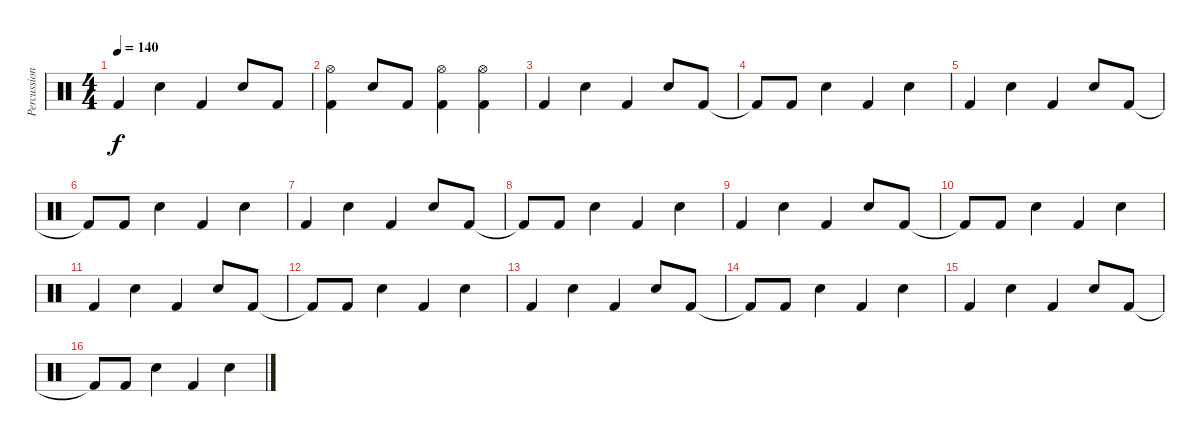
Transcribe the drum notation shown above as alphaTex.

\track ("Percussion" "Percussion") {instrument percussion}
\staff {score}
\articulation defaults
\ts (4 4)
\tempo 140
\clef neutral
\ks c "Kick (hit) 2".4{dy f} "Electric Snare (hit)".4 "Kick (hit) 2".4 "Electric Snare (hit)".8 "Kick (hit) 2".8
|
("Hi-Hat (open)" "Kick (hit) 2").4 "Electric Snare (hit)".8 "Kick (hit) 2".8 ("Hi-Hat (open)" "Kick (hit) 2").4 ("Hi-Hat (open)" "Kick (hit) 2").4 |
"Kick (hit) 2".4 "Electric Snare (hit)".4 "Kick (hit) 2".4 "Electric Snare (hit)".8 "Kick (hit) 2".8 |
"Kick (hit) 2"{t}.8 "Kick (hit) 2".8 "Electric Snare (hit)".4 "Kick (hit) 2".4 "Electric Snare (hit)".4 |
"Kick (hit) 2".4 "Electric Snare (hit)".4 "Kick (hit) 2".4 "Electric Snare (hit)".8 "Kick (hit) 2".8 |
"Kick (hit) 2"{t}.8 "Kick (hit) 2".8 "Electric Snare (hit)".4 "Kick (hit) 2".4 "Electric Snare (hit)".4 |
"Kick (hit) 2".4 "Electric Snare (hit)".4 "Kick (hit) 2".4 "Electric Snare (hit)".8 "Kick (hit) 2".8 |
"Kick (hit) 2"{t}.8 "Kick (hit) 2".8 "Electric Snare (hit)".4 "Kick (hit) 2".4 "Electric Snare (hit)".4 |
"Kick (hit) 2".4 "Electric Snare (hit)".4 "Kick (hit) 2".4 "Electric Snare (hit)".8 "Kick (hit) 2".8 |
"Kick (hit) 2"{t}.8 "Kick (hit) 2".8 "Electric Snare (hit)".4 "Kick (hit) 2".4 "Electric Snare (hit)".4 |
"Kick (hit) 2".4 "Electric Snare (hit)".4 "Kick (hit) 2".4 "Electric Snare (hit)".8 "Kick (hit) 2".8 |
"Kick (hit) 2"{t}.8 "Kick (hit) 2".8 "Electric Snare (hit)".4 "Kick (hit) 2".4 "Electric Snare (hit)".4 |
"Kick (hit) 2".4 "Electric Snare (hit)".4 "Kick (hit) 2".4 "Electric Snare (hit)".8 "Kick (hit) 2".8 |
"Kick (hit) 2"{t}.8 "Kick (hit) 2".8 "Electric Snare (hit)".4 "Kick (hit) 2".4 "Electric Snare (hit)".4 |
"Kick (hit) 2".4 "Electric Snare (hit)".4 "Kick (hit) 2".4 "Electric Snare (hit)".8 "Kick (hit) 2".8 |
"Kick (hit) 2"{t}.8 "Kick (hit) 2".8 "Electric Snare (hit)".4 "Kick (hit) 2".4 "Electric Snare (hit)".4
